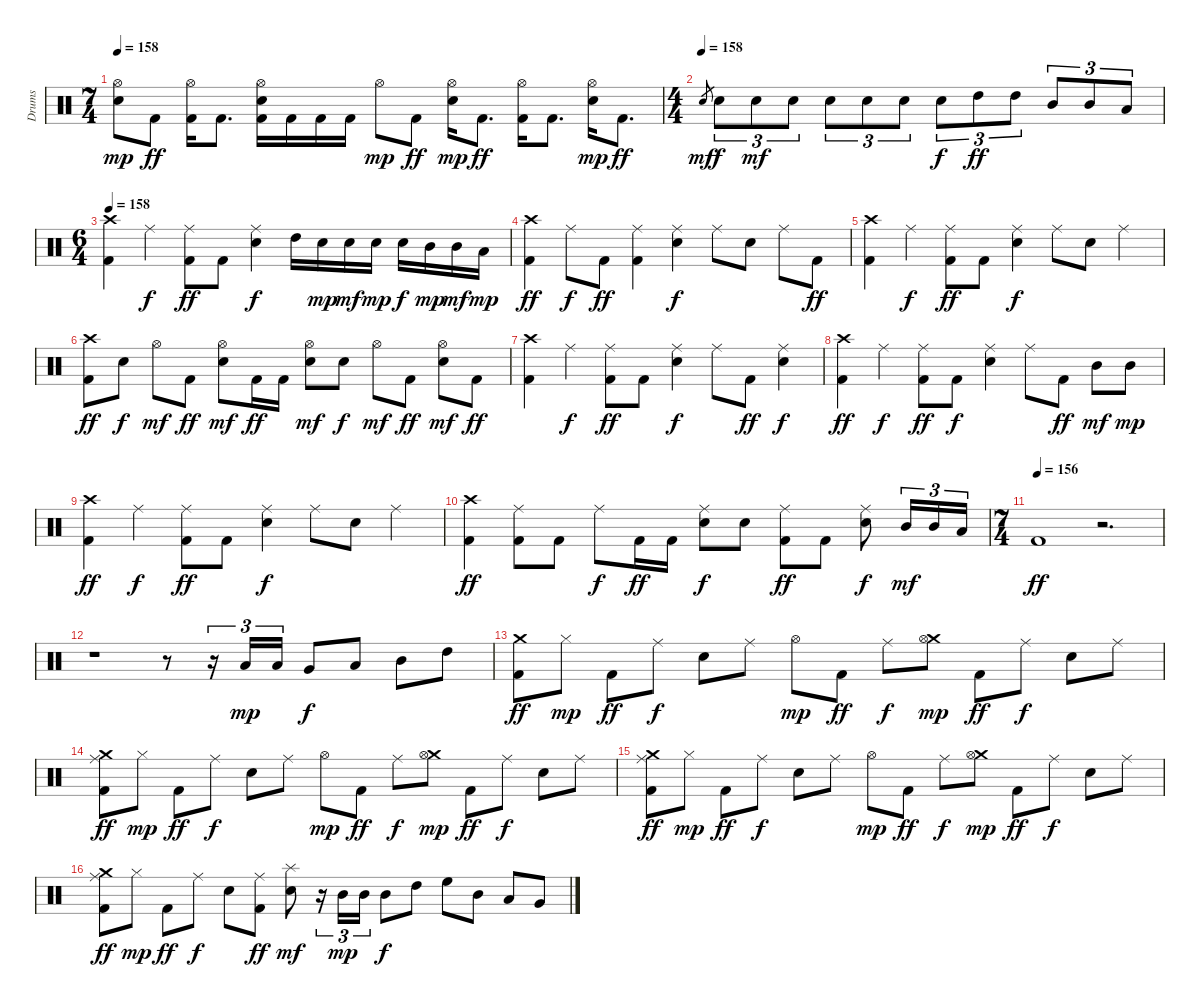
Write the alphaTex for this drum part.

\track ("Drums" "Drums") {instrument percussion}
\staff {score}
\articulation defaults
\ts (7 4)
\tempo 158
\clef neutral
\ks c
("Hi-Hat (open)" "Electric Snare (hit)").8{dy mp} "Kick (hit) 2".8{dy ff} ("Hi-Hat (open)" "Kick (hit) 2").16 "Kick (hit) 2".8{d} ("Hi-Hat (open)" "Electric Snare (hit)" "Kick (hit) 2").16 "Kick (hit) 2".16 "Kick (hit) 2".16 "Kick (hit) 2".16 "Hi-Hat (open)".8{dy mp} "Kick (hit) 2".8{dy ff} ("Hi-Hat (open)" "Electric Snare (hit)").16{dy mp} "Kick (hit) 2".8{d dy ff} ("Hi-Hat (open)" "Kick (hit) 2").16 "Kick (hit) 2".8{d} ("Hi-Hat (open)" "Electric Snare (hit)").16{dy mp} "Kick (hit) 2".8{d dy ff} |
\ts (4 4)
\tempo (158)
"Electric Snare (hit)".8{gr dy mf} "Electric Snare (hit)".8{tu (3 2) dy f} "Electric Snare (hit)".8{tu (3 2) dy mf} "Electric Snare (hit)".8{tu (3 2)} "Electric Snare (hit)".8{tu (3 2)} "Electric Snare (hit)".8{tu (3 2)} "Electric Snare (hit)".8{tu (3 2)} "Electric Snare (hit)".8{tu (3 2) dy f} "High Tom (hit)".8{tu (3 2) dy ff} "High Tom (hit)".8{tu (3 2)} "Mid Tom (hit)".8{tu (3 2)} "Mid Tom (hit)".8{tu (3 2)} "Low Tom (hit)".8{tu (3 2)} |
\ts (6 4)
\tempo 158
("Crash high (hit)" "Kick (hit) 2").4 "Ride (middle)".4{dy f} ("Ride (middle)" "Kick (hit) 2").8{dy ff} "Kick (hit) 2".8 ("Ride (middle)" "Electric Snare (hit)").4{dy f} "High Tom (hit)".16 "Electric Snare (hit)".16{dy mp} "Electric Snare (hit)".16{dy mf} "Electric Snare (hit)".16{dy mp} "Electric Snare (hit)".16{dy f} "Mid Tom (hit)".16{dy mp} "Mid Tom (hit)".16{dy mf} "Low Tom (hit)".16{dy mp} |
("Crash high (hit)" "Kick (hit) 2").4{dy ff} "Ride (middle)".8{dy f} "Kick (hit) 2".8{dy ff} ("Ride (middle)" "Kick (hit) 2").4 ("Ride (middle)" "Electric Snare (hit)").4{dy f} "Ride (middle)".8 "Electric Snare (hit)".8 "Ride (middle)".8 "Kick (hit) 2".8{dy ff} |
("Crash high (hit)" "Kick (hit) 2").4 "Ride (middle)".4{dy f} ("Ride (middle)" "Kick (hit) 2").8{dy ff} "Kick (hit) 2".8 ("Ride (middle)" "Electric Snare (hit)").4{dy f} "Ride (middle)".8 "Electric Snare (hit)".8 "Ride (middle)".4 |
("Crash high (hit)" "Kick (hit) 2").8{dy ff} "Electric Snare (hit)".8{dy f} "Hi-Hat (open)".8{dy mf} "Kick (hit) 2".8{dy ff} ("Hi-Hat (open)" "Electric Snare (hit)").8{dy mf} "Kick (hit) 2".16{dy ff} "Kick (hit) 2".16 ("Hi-Hat (open)" "Electric Snare (hit)").8{dy mf} "Electric Snare (hit)".8{dy f} "Hi-Hat (open)".8{dy mf} "Kick (hit) 2".8{dy ff} ("Hi-Hat (open)" "Electric Snare (hit)").8{dy mf} "Kick (hit) 2".8{dy ff} |
("Crash high (hit)" "Kick (hit) 2").4 "Ride (middle)".4{dy f} ("Ride (middle)" "Kick (hit) 2").8{dy ff} "Kick (hit) 2".8 ("Ride (middle)" "Electric Snare (hit)").4{dy f} "Ride (middle)".8 "Kick (hit) 2".8{dy ff} ("Ride (middle)" "Electric Snare (hit)").4{dy f} |
("Crash high (hit)" "Kick (hit) 2").4{dy ff} "Ride (middle)".4{dy f} ("Ride (middle)" "Kick (hit) 2").8{dy ff} "Kick (hit) 2".8{dy f} ("Ride (middle)" "Electric Snare (hit)").4 "Ride (middle)".8 "Kick (hit) 2".8{dy ff} "Mid Tom (hit)".8{dy mf} "Mid Tom (hit)".8{dy mp} |
("Crash high (hit)" "Kick (hit) 2").4{dy ff} "Ride (middle)".4{dy f} ("Ride (middle)" "Kick (hit) 2").8{dy ff} "Kick (hit) 2".8 ("Ride (middle)" "Electric Snare (hit)").4{dy f} "Ride (middle)".8 "Electric Snare (hit)".8 "Ride (middle)".4 |
("Crash high (hit)" "Kick (hit) 2").4{dy ff} ("Ride (middle)" "Kick (hit) 2").8 "Kick (hit) 2".8 "Ride (middle)".8{dy f} "Kick (hit) 2".16{dy ff} "Kick (hit) 2".16 ("Ride (middle)" "Electric Snare (hit)").8{dy f} "Electric Snare (hit)".8 ("Ride (middle)" "Kick (hit) 2").8{dy ff} "Kick (hit) 2".8 ("Ride (middle)" "Electric Snare (hit)").8{dy f} "Mid Tom (hit)".16{tu (3 2) dy mf} "Mid Tom (hit)".16{tu (3 2)} "Low Tom (hit)".16{tu (3 2)} |
\ts (7 4)
\tempo (156)
"Kick (hit) 2".1{dy ff} r.2{d} |
r.1 r.8 r.16{tu (3 2)} "Low Tom (hit)".16{tu (3 2) dy mp} "Low Tom (hit)".16{tu (3 2)} "Very Low Tom (hit)".8{dy f} "Low Tom (hit)".8 "Mid Tom (hit)".8 "High Tom (hit)".8 |
("Crash medium (hit)" "Kick (hit) 2").8{dy ff} "Hi-Hat (closed)".8{dy mp} "Kick (hit) 2".8{dy ff} "Ride (middle)".8{dy f} "Electric Snare (hit)".8 "Ride (middle)".8 "Hi-Hat (open)".8{dy mp} "Kick (hit) 2".8{dy ff} "Ride (middle)".8{dy f} ("Crash medium (hit)" "Hi-Hat (open)").8{dy mp} "Kick (hit) 2".8{dy ff} "Ride (middle)".8{dy f} "Electric Snare (hit)".8 "Ride (middle)".8 |
("Crash medium (hit)" "Ride (middle)" "Kick (hit) 2").8{dy ff} "Hi-Hat (closed)".8{dy mp} "Kick (hit) 2".8{dy ff} "Ride (middle)".8{dy f} "Electric Snare (hit)".8 "Ride (middle)".8 "Hi-Hat (open)".8{dy mp} "Kick (hit) 2".8{dy ff} "Ride (middle)".8{dy f} ("Crash medium (hit)" "Hi-Hat (open)").8{dy mp} "Kick (hit) 2".8{dy ff} "Ride (middle)".8{dy f} "Electric Snare (hit)".8 "Ride (middle)".8 |
("Crash medium (hit)" "Ride (middle)" "Kick (hit) 2").8{dy ff} "Hi-Hat (closed)".8{dy mp} "Kick (hit) 2".8{dy ff} "Ride (middle)".8{dy f} "Electric Snare (hit)".8 "Ride (middle)".8 "Hi-Hat (open)".8{dy mp} "Kick (hit) 2".8{dy ff} "Ride (middle)".8{dy f} ("Crash medium (hit)" "Hi-Hat (open)").8{dy mp} "Kick (hit) 2".8{dy ff} "Ride (middle)".8{dy f} "Electric Snare (hit)".8 "Ride (middle)".8 |
("Crash medium (hit)" "Ride (middle)" "Kick (hit) 2").8{dy ff} "Hi-Hat (closed)".8{dy mp} "Kick (hit) 2".8{dy ff} "Ride (middle)".8{dy f} "Electric Snare (hit)".8 ("Ride (middle)" "Kick (hit) 2").8{dy ff} ("Splash (hit)" "Electric Snare (hit)").8{dy mf} r.16{tu (3 2)} "Mid Tom (hit)".16{tu (3 2) dy mp} "Mid Tom (hit)".16{tu (3 2)} "Mid Tom (hit)".8{dy f} "High Tom (hit)".8 "High Floor Tom (hit)".8 "Mid Tom (hit)".8 "Low Tom (hit)".8 "Very Low Tom (hit)".8
